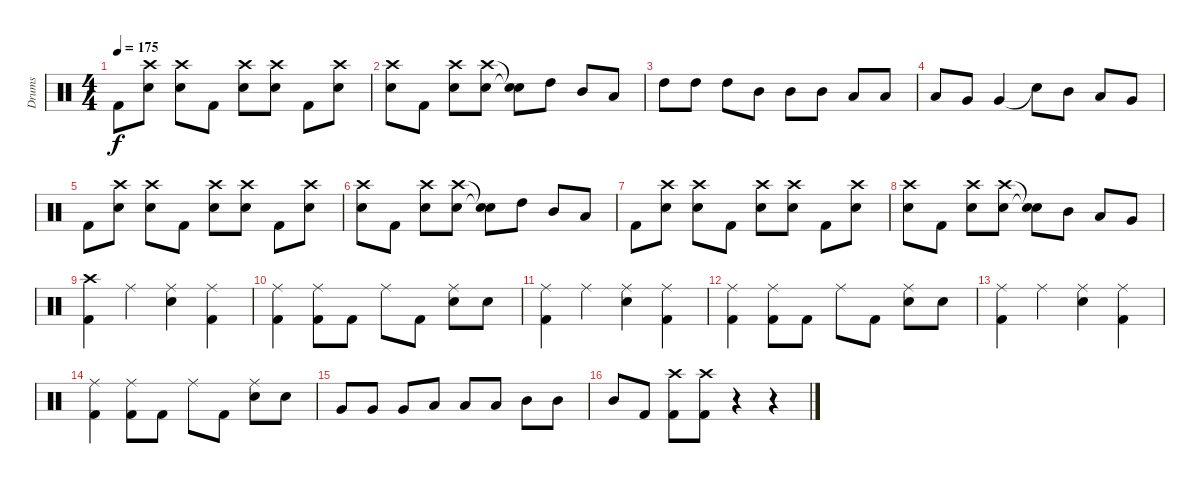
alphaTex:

\track ("Drums" "Drums") {instrument percussion}
\staff {score}
\articulation defaults
\ts (4 4)
\tempo 175
\clef neutral
\ks c "Kick (hit) 2".8{dy f}
("Crash high (hit)" "Electric Snare (hit)").8 ("Crash high (hit)" "Electric Snare (hit)").8 "Kick (hit) 2".8 ("Crash high (hit)" "Electric Snare (hit)").8 ("Crash high (hit)" "Electric Snare (hit)").8 "Kick (hit) 2".8 ("Crash high (hit)" "Electric Snare (hit)").8 |
("Crash high (hit)" "Electric Snare (hit)").8 "Kick (hit) 2".8 ("Crash high (hit)" "Electric Snare (hit)").8 ("Crash high (hit)" "Electric Snare (hit)").8 ("Snare (hit)"{t} "Snare (hit)"{t}).8 "High Tom (hit)".8 "Mid Tom (hit)".8 "Low Tom (hit)".8 |
"High Tom (hit)".8 "High Tom (hit)".8 "High Tom (hit)".8 "Mid Tom (hit)".8 "Mid Tom (hit)".8 "Mid Tom (hit)".8 "Low Tom (hit)".8 "Low Tom (hit)".8 |
"Low Tom (hit)".8 "Very Low Tom (hit)".8 "Very Low Tom (hit)".4 "Snare (hit)"{t}.8 "Mid Tom (hit)".8 "Low Tom (hit)".8 "Very Low Tom (hit)".8 |
"Kick (hit) 2".8 ("Crash high (hit)" "Electric Snare (hit)").8 ("Crash high (hit)" "Electric Snare (hit)").8 "Kick (hit) 2".8 ("Crash high (hit)" "Electric Snare (hit)").8 ("Crash high (hit)" "Electric Snare (hit)").8 "Kick (hit) 2".8 ("Crash high (hit)" "Electric Snare (hit)").8 |
("Crash high (hit)" "Electric Snare (hit)").8 "Kick (hit) 2".8 ("Crash high (hit)" "Electric Snare (hit)").8 ("Crash high (hit)" "Electric Snare (hit)").8 ("Snare (hit)"{t} "Snare (hit)"{t}).8 "High Tom (hit)".8 "Mid Tom (hit)".8 "Low Tom (hit)".8 |
"Kick (hit) 2".8 ("Crash high (hit)" "Electric Snare (hit)").8 ("Crash high (hit)" "Electric Snare (hit)").8 "Kick (hit) 2".8 ("Crash high (hit)" "Electric Snare (hit)").8 ("Crash high (hit)" "Electric Snare (hit)").8 "Kick (hit) 2".8 ("Crash high (hit)" "Electric Snare (hit)").8 |
("Crash high (hit)" "Electric Snare (hit)").8 "Kick (hit) 2".8 ("Crash high (hit)" "Electric Snare (hit)").8 ("Crash high (hit)" "Electric Snare (hit)").8 ("Snare (hit)"{t} "Snare (hit)"{t}).8 "Mid Tom (hit)".8 "Low Tom (hit)".8 "Very Low Tom (hit)".8 |
("Crash high (hit)" "Kick (hit) 2").4 "Ride (middle)".4 ("Ride (middle)" "Electric Snare (hit)").4 ("Ride (middle)" "Kick (hit) 2").4 |
("Ride (middle)" "Kick (hit) 2").4 ("Ride (middle)" "Kick (hit) 2").8 "Kick (hit) 2".8 "Ride (middle)".8 "Kick (hit) 2".8 ("Ride (middle)" "Electric Snare (hit)").8 "Electric Snare (hit)".8 |
("Ride (middle)" "Kick (hit) 2").4 "Ride (middle)".4 ("Ride (middle)" "Electric Snare (hit)").4 ("Ride (middle)" "Kick (hit) 2").4 |
("Ride (middle)" "Kick (hit) 2").4 ("Ride (middle)" "Kick (hit) 2").8 "Kick (hit) 2".8 "Ride (middle)".8 "Kick (hit) 2".8 ("Ride (middle)" "Electric Snare (hit)").8 "Electric Snare (hit)".8 |
("Ride (middle)" "Kick (hit) 2").4 "Ride (middle)".4 ("Ride (middle)" "Electric Snare (hit)").4 ("Ride (middle)" "Kick (hit) 2").4 |
("Ride (middle)" "Kick (hit) 2").4 ("Ride (middle)" "Kick (hit) 2").8 "Kick (hit) 2".8 "Ride (middle)".8 "Kick (hit) 2".8 ("Ride (middle)" "Electric Snare (hit)").8 "Electric Snare (hit)".8 |
"Very Low Tom (hit)".8 "Very Low Tom (hit)".8 "Very Low Tom (hit)".8 "Low Tom (hit)".8 "Low Tom (hit)".8 "Low Tom (hit)".8 "Mid Tom (hit)".8 "Mid Tom (hit)".8 |
"Mid Tom (hit)".8 "Kick (hit) 2".8 ("Crash high (hit)" "Kick (hit) 2").8 ("Crash high (hit)" "Kick (hit) 2").8 r.4 r.4
